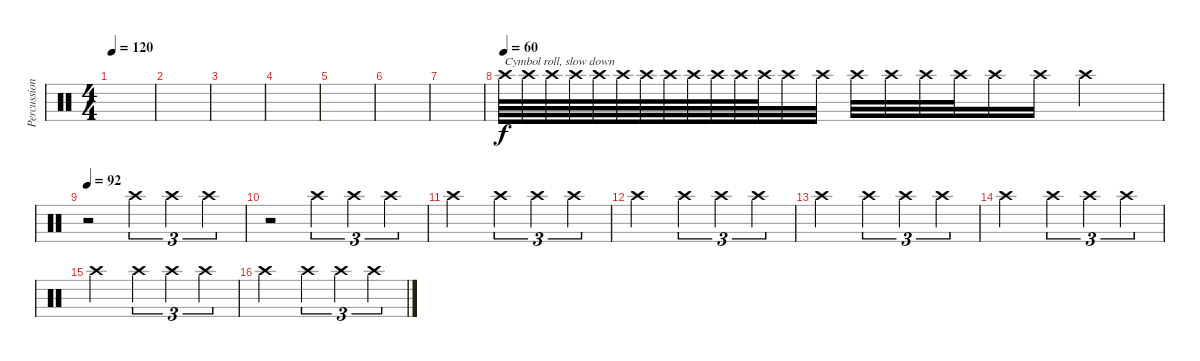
\track ("Percussion" "Percussion") {instrument percussion}
\staff {score}
\articulation defaults
\ts (4 4)
\tempo 120
\clef neutral
\ks c
|
|
|
|
|
|
|
\tempo (60)
"Crash high (hit)".64{txt "Cymbol roll, slow down" volume 13} "Crash high (hit)".64 "Crash high (hit)".64 "Crash high (hit)".64 "Crash high (hit)".64 "Crash high (hit)".64 "Crash high (hit)".64 "Crash high (hit)".64 "Crash high (hit)".64 "Crash high (hit)".64 "Crash high (hit)".64 "Crash high (hit)".64 "Crash high (hit)".32 "Crash high (hit)".32 "Crash high (hit)".32 "Crash high (hit)".32 "Crash high (hit)".32 "Crash high (hit)".32 "Crash high (hit)".16 "Crash high (hit)".16 "Crash high (hit)".2 |
\tempo 92
r.2 "Crash high (hit)".4{tu (3 2)} "Crash high (hit)".4{tu (3 2)} "Crash high (hit)".4{tu (3 2)} |
r.2 "Crash high (hit)".4{tu (3 2)} "Crash high (hit)".4{tu (3 2)} "Crash high (hit)".4{tu (3 2)} |
"Crash high (hit)".2 "Crash high (hit)".4{tu (3 2)} "Crash high (hit)".4{tu (3 2)} "Crash high (hit)".4{tu (3 2)} |
"Crash high (hit)".2 "Crash high (hit)".4{tu (3 2)} "Crash high (hit)".4{tu (3 2)} "Crash high (hit)".4{tu (3 2)} |
"Crash high (hit)".2 "Crash high (hit)".4{tu (3 2)} "Crash high (hit)".4{tu (3 2)} "Crash high (hit)".4{tu (3 2)} |
"Crash high (hit)".2 "Crash high (hit)".4{tu (3 2)} "Crash high (hit)".4{tu (3 2)} "Crash high (hit)".4{tu (3 2)} |
"Crash high (hit)".2 "Crash high (hit)".4{tu (3 2)} "Crash high (hit)".4{tu (3 2)} "Crash high (hit)".4{tu (3 2)} |
"Crash high (hit)".2 "Crash high (hit)".4{tu (3 2)} "Crash high (hit)".4{tu (3 2)} "Crash high (hit)".4{tu (3 2)}
